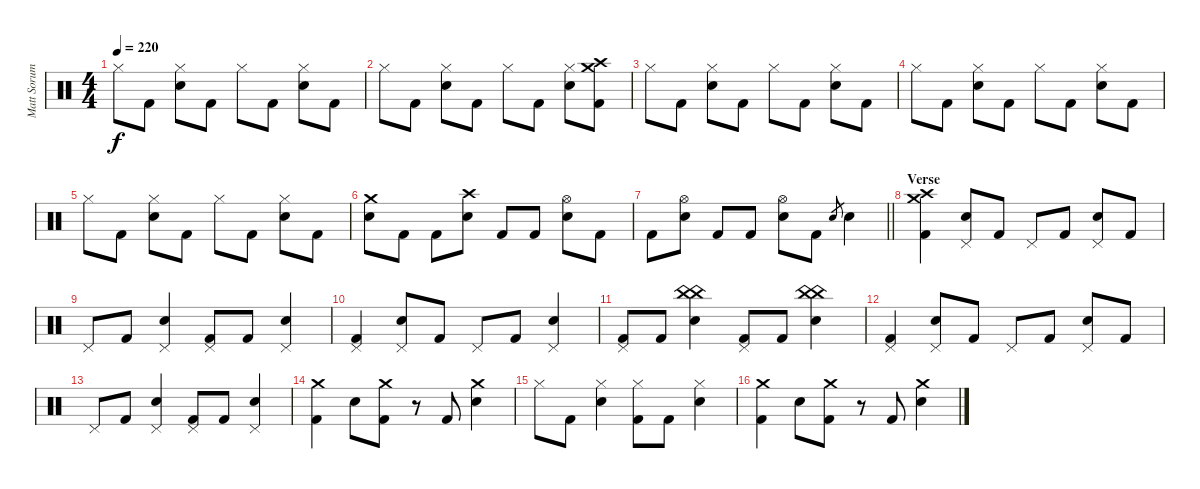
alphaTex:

\track ("Matt Sorum - Drums" "Matt Sorum") {instrument percussion}
\staff {score}
\articulation defaults
\ts (4 4)
\tempo 220
\clef neutral
\ks c "Hi-Hat (closed)".8{dy f} "Kick (hit) 2".8
("Hi-Hat (closed)" "Snare (hit) 2").8 "Kick (hit) 2".8 "Hi-Hat (closed)".8 "Kick (hit) 2".8 ("Hi-Hat (closed)" "Snare (hit) 2").8 "Kick (hit) 2".8 |
"Hi-Hat (closed)".8 "Kick (hit) 2".8 ("Hi-Hat (closed)" "Snare (hit) 2").8 "Kick (hit) 2".8 "Hi-Hat (closed)".8 "Kick (hit) 2".8 ("Hi-Hat (closed)" "Snare (hit) 2").8 ("Crash medium (hit)" "Crash high (hit)" "Kick (hit) 2").8 |
"Hi-Hat (closed)".8 "Kick (hit) 2".8 ("Hi-Hat (closed)" "Snare (hit) 2").8 "Kick (hit) 2".8 "Hi-Hat (closed)".8 "Kick (hit) 2".8 ("Hi-Hat (closed)" "Snare (hit) 2").8 "Kick (hit) 2".8 |
"Hi-Hat (closed)".8 "Kick (hit) 2".8 ("Hi-Hat (closed)" "Snare (hit) 2").8 "Kick (hit) 2".8 "Hi-Hat (closed)".8 "Kick (hit) 2".8 ("Hi-Hat (closed)" "Snare (hit) 2").8 "Kick (hit) 2".8 |
"Hi-Hat (closed)".8 "Kick (hit) 2".8 ("Hi-Hat (closed)" "Snare (hit) 2").8 "Kick (hit) 2".8 "Hi-Hat (closed)".8 "Kick (hit) 2".8 ("Hi-Hat (closed)" "Snare (hit) 2").8 "Kick (hit) 2".8 |
("Crash medium (hit)" "Snare (hit) 2").8 "Kick (hit) 2".8 "Kick (hit) 2".8 ("Crash high (hit)" "Snare (hit) 2").8 "Kick (hit) 2".8 "Kick (hit) 2".8 ("Hi-Hat (open)" "Snare (hit) 2").8 "Kick (hit) 2".8 |
\barLineRight lightlight "Kick (hit) 2".8
("Hi-Hat (open)" "Snare (hit) 2").8 "Kick (hit) 2".8 "Kick (hit) 2".8 ("Hi-Hat (open)" "Snare (hit) 2").8 "Kick (hit) 2".8 "Snare (hit) 2".8{gr} "Snare (hit) 2".4 |
\section ("" "Verse")
("Crash medium (hit)" "Crash high (hit)" "Kick (hit) 2").4 ("Pedal Hi-Hat (hit)" "Snare (hit) 2").8 "Kick (hit) 2".8 "Pedal Hi-Hat (hit)".8 "Kick (hit) 2".8 ("Pedal Hi-Hat (hit)" "Snare (hit) 2").8 "Kick (hit) 2".8 |
"Pedal Hi-Hat (hit)".8 "Kick (hit) 2".8 ("Pedal Hi-Hat (hit)" "Snare (hit) 2").4 ("Pedal Hi-Hat (hit)" "Kick (hit) 2").8 "Kick (hit) 2".8 ("Pedal Hi-Hat (hit)" "Snare (hit) 2").4 |
("Pedal Hi-Hat (hit)" "Kick (hit) 2").4 ("Pedal Hi-Hat (hit)" "Snare (hit) 2").8 "Kick (hit) 2".8 "Pedal Hi-Hat (hit)".8 "Kick (hit) 2".8 ("Pedal Hi-Hat (hit)" "Snare (hit) 2").4 |
("Pedal Hi-Hat (hit)" "Kick (hit) 2").8 "Kick (hit) 2".8 ("China (hit)" "China (hit)" "Snare (hit) 2").4 ("Pedal Hi-Hat (hit)" "Kick (hit) 2").8 "Kick (hit) 2".8 ("China (hit)" "China (hit)" "Snare (hit) 2").4 |
("Pedal Hi-Hat (hit)" "Kick (hit) 2").4 ("Pedal Hi-Hat (hit)" "Snare (hit) 2").8 "Kick (hit) 2".8 "Pedal Hi-Hat (hit)".8 "Kick (hit) 2".8 ("Pedal Hi-Hat (hit)" "Snare (hit) 2").8 "Kick (hit) 2".8 |
"Pedal Hi-Hat (hit)".8 "Kick (hit) 2".8 ("Pedal Hi-Hat (hit)" "Snare (hit) 2").4 ("Pedal Hi-Hat (hit)" "Kick (hit) 2").8 "Kick (hit) 2".8 ("Pedal Hi-Hat (hit)" "Snare (hit) 2").4 |
("Crash medium (hit)" "Kick (hit) 2").4 "Snare (hit) 2".8 ("Crash medium (hit)" "Kick (hit) 2").8 r.8 "Kick (hit) 2".8 ("Crash medium (hit)" "Snare (hit) 2").4 |
"Hi-Hat (closed)".8 "Kick (hit) 2".8 ("Hi-Hat (closed)" "Snare (hit) 2").4 ("Hi-Hat (closed)" "Kick (hit) 2").8 "Kick (hit) 2".8 ("Hi-Hat (closed)" "Snare (hit) 2").4 |
("Crash medium (hit)" "Kick (hit) 2").4 "Snare (hit) 2".8 ("Crash medium (hit)" "Kick (hit) 2").8 r.8 "Kick (hit) 2".8 ("Crash medium (hit)" "Snare (hit) 2").4
